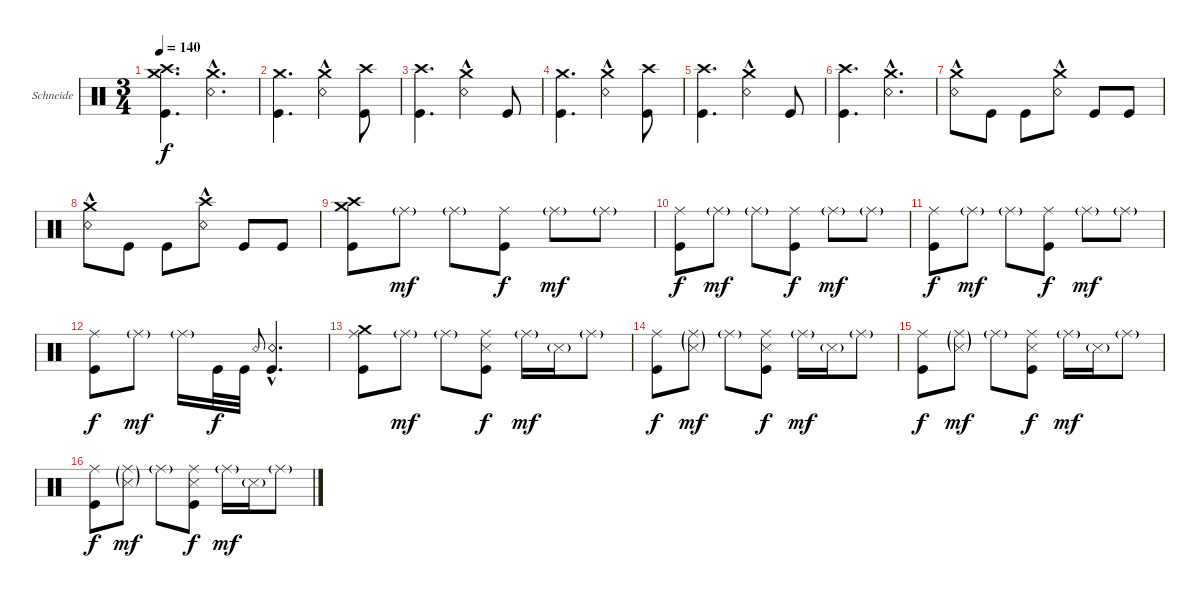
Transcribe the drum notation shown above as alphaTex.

\bracketExtendMode groupsimilarinstruments
\firstSystemTrackNameOrientation horizontal
\otherSystemsTrackNameOrientation horizontal
\track ("Christoph \"Doom\" Schneider" "Schneide") {instrument percussion}
\staff {score}
\articulation defaults
\ts (3 4)
\tempo 140
\clef neutral
\ks c
("Crash medium (hit)" "Kick (hit)" "Crash high (hit)").4{d dy f} ("Crash medium (hit)" "Snare (rim shot)"{hac}).4{d} |
("Crash medium (hit)" "Kick (hit)").4{d} ("Crash medium (hit)" "Snare (rim shot)"{hac}).4 ("Crash high (hit)" "Kick (hit)").8 |
("Kick (hit)" "Crash high (hit)").4{d} ("Crash medium (hit)" "Snare (rim shot)"{hac}).4 "Kick (hit)".8 |
("Crash medium (hit)" "Kick (hit)").4{d} ("Crash medium (hit)" "Snare (rim shot)"{hac}).4 ("Crash high (hit)" "Kick (hit)").8 |
("Kick (hit)" "Crash high (hit)").4{d} ("Crash medium (hit)" "Snare (rim shot)"{hac}).4 "Kick (hit)".8 |
("Kick (hit)" "Crash high (hit)").4{d} ("Crash medium (hit)" "Snare (rim shot)"{hac}).4{d} |
("Crash medium (hit)" "Snare (rim shot)"{hac}).8 "Kick (hit)".8 "Kick (hit)".8 ("Crash medium (hit)" "Snare (rim shot)"{hac}).8 "Kick (hit)".8 "Kick (hit)".8 |
("Crash medium (hit)" "Snare (rim shot)"{hac}).8 "Kick (hit)".8 "Kick (hit)".8 ("Crash high (hit)" "Snare (rim shot)"{hac}).8 "Kick (hit)".8 "Kick (hit)".8 |
("Crash medium (hit)" "Kick (hit)" "Crash high (hit)").8 "Ride (middle)"{g}.8{dy mf} "Ride (middle)"{g}.8 ("Ride (middle)" "Kick (hit)").8{dy f} "Ride (middle)"{g}.8{dy mf} "Ride (middle)"{g}.8 |
("Ride (middle)" "Kick (hit)").8{dy f} "Ride (middle)"{g}.8{dy mf} "Ride (middle)"{g}.8 ("Ride (middle)" "Kick (hit)").8{dy f} "Ride (middle)"{g}.8{dy mf} "Ride (middle)"{g}.8 |
("Ride (middle)" "Kick (hit)").8{dy f} "Ride (middle)"{g}.8{dy mf} "Ride (middle)"{g}.8 ("Ride (middle)" "Kick (hit)").8{dy f} "Ride (middle)"{g}.8{dy mf} "Ride (middle)"{g}.8 |
("Ride (middle)" "Kick (hit)").8{dy f} "Ride (middle)"{g}.8{dy mf} "Ride (middle)"{g}.16 "Kick (hit)".32{dy f} "Kick (hit)".32 "Snare (rim shot)".8{gr onbeat} ("Kick (hit)" "Snare (rim shot)"{hac}).4{d} |
("Ride (middle)" "Kick (hit)" "Crash medium (hit)").8 "Ride (middle)"{g}.8{dy mf} "Ride (middle)"{g}.8 ("Ride (middle)" "Kick (hit)" "Snare (side stick) 3").8{dy f} "Ride (middle)"{g}.16{dy mf} "Snare (side stick) 3"{g}.16 "Ride (middle)"{g}.8 |
("Ride (middle)" "Kick (hit)").8{dy f} ("Ride (middle)"{g} "Snare (side stick) 3"{g}).8{dy mf} "Ride (middle)"{g}.8 ("Ride (middle)" "Kick (hit)" "Snare (side stick) 3").8{dy f} "Ride (middle)"{g}.16{dy mf} "Snare (side stick) 3"{g}.16 "Ride (middle)"{g}.8 |
("Ride (middle)" "Kick (hit)").8{dy f} ("Ride (middle)"{g} "Snare (side stick) 3"{g}).8{dy mf} "Ride (middle)"{g}.8 ("Ride (middle)" "Kick (hit)" "Snare (side stick) 3").8{dy f} "Ride (middle)"{g}.16{dy mf} "Snare (side stick) 3"{g}.16 "Ride (middle)"{g}.8 |
("Ride (middle)" "Kick (hit)").8{dy f} ("Ride (middle)"{g} "Snare (side stick) 3"{g}).8{dy mf} "Ride (middle)"{g}.8 ("Ride (middle)" "Kick (hit)" "Snare (side stick) 3").8{dy f} "Ride (middle)"{g}.16{dy mf} "Snare (side stick) 3"{g}.16 "Ride (middle)"{g}.8
